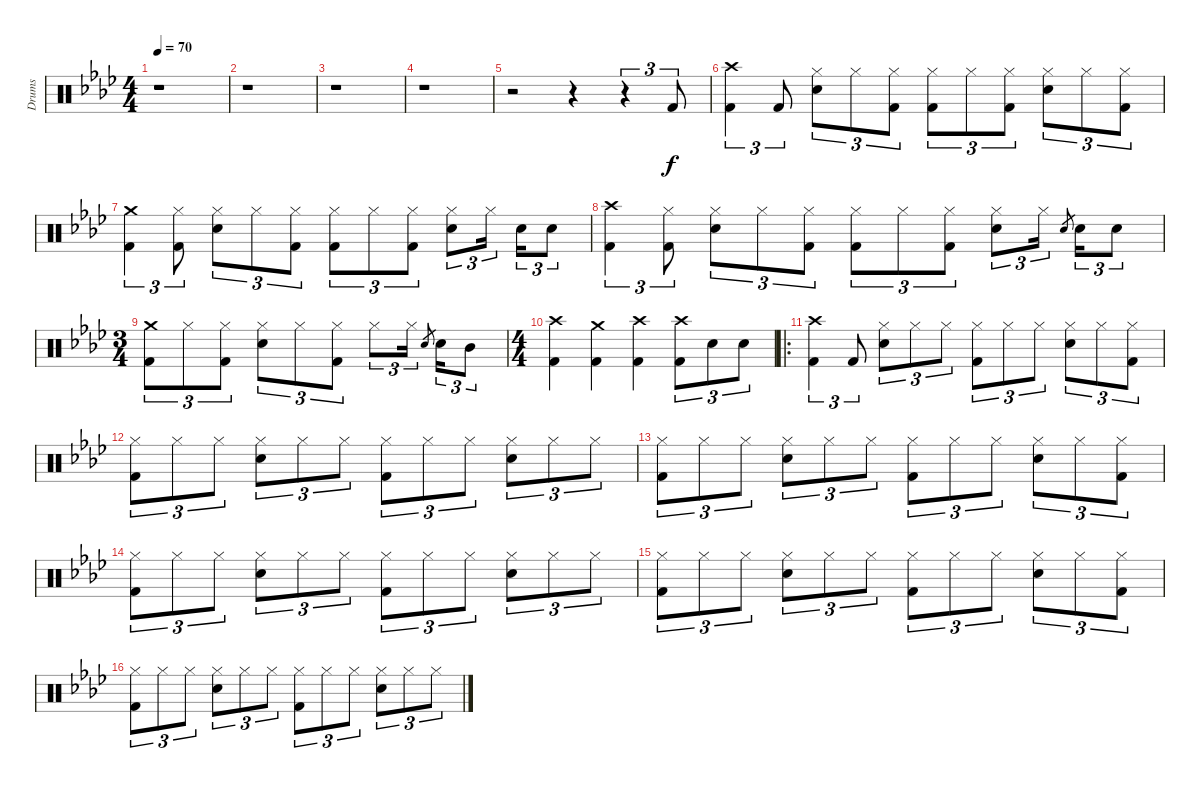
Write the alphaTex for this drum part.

\track ("Drums" "Drums") {instrument percussion}
\staff {score}
\articulation defaults
\ts (4 4)
\tempo 70
\clef neutral
\ks fminor
r.1{dy f} |
r.1 |
r.1 |
r.1 |
r.2 r.4 r.4{tu (3 2)} "Kick (hit) 2".8{tu (3 2)} |
("Kick (hit) 2" "Crash high (hit)").4{tu (3 2)} "Kick (hit) 2".8{tu (3 2)} ("Snare (hit) 2" "Hi-Hat (closed)").8{tu (3 2)} "Hi-Hat (closed)".8{tu (3 2)} ("Kick (hit) 2" "Hi-Hat (closed)").8{tu (3 2)} ("Kick (hit) 2" "Hi-Hat (closed)").8{tu (3 2)} "Hi-Hat (closed)".8{tu (3 2)} ("Kick (hit) 2" "Hi-Hat (closed)").8{tu (3 2)} ("Snare (hit) 2" "Hi-Hat (closed)").8{tu (3 2)} "Hi-Hat (closed)".8{tu (3 2)} ("Kick (hit) 2" "Hi-Hat (closed)").8{tu (3 2)} |
("Kick (hit) 2" "Crash medium (hit)").4{tu (3 2)} ("Kick (hit) 2" "Hi-Hat (closed)").8{tu (3 2)} ("Snare (hit) 2" "Hi-Hat (closed)").8{tu (3 2)} "Hi-Hat (closed)".8{tu (3 2)} ("Kick (hit) 2" "Hi-Hat (closed)").8{tu (3 2)} ("Kick (hit) 2" "Hi-Hat (closed)").8{tu (3 2)} "Hi-Hat (closed)".8{tu (3 2)} ("Kick (hit) 2" "Hi-Hat (closed)").8{tu (3 2)} ("Snare (hit) 2" "Hi-Hat (closed)").8{tu (3 2)} "Hi-Hat (closed)".16{tu (3 2)} "Snare (hit) 2".16{tu (3 2)} "Snare (hit) 2".8{tu (3 2)} |
("Kick (hit) 2" "Crash high (hit)").4{tu (3 2)} ("Kick (hit) 2" "Hi-Hat (closed)").8{tu (3 2)} ("Snare (hit) 2" "Hi-Hat (closed)").8{tu (3 2)} "Hi-Hat (closed)".8{tu (3 2)} ("Kick (hit) 2" "Hi-Hat (closed)").8{tu (3 2)} ("Kick (hit) 2" "Hi-Hat (closed)").8{tu (3 2)} "Hi-Hat (closed)".8{tu (3 2)} ("Kick (hit) 2" "Hi-Hat (closed)").8{tu (3 2)} ("Snare (hit) 2" "Hi-Hat (closed)").8{tu (3 2)} "Hi-Hat (closed)".16{tu (3 2)} "Snare (hit) 2".8{gr} "Snare (hit) 2".16{tu (3 2)} "Snare (hit) 2".8{tu (3 2)} |
\ts (3 4)
("Kick (hit) 2" "Crash medium (hit)").8{tu (3 2)} "Hi-Hat (closed)".8{tu (3 2)} ("Kick (hit) 2" "Hi-Hat (closed)").8{tu (3 2)} ("Snare (hit) 2" "Hi-Hat (closed)").8{tu (3 2)} "Hi-Hat (closed)".8{tu (3 2)} ("Kick (hit) 2" "Hi-Hat (closed)").8{tu (3 2)} "Hi-Hat (closed)".8{tu (3 2)} "Hi-Hat (closed)".16{tu (3 2)} "Snare (hit) 2".8{gr} "Snare (hit) 2".16{tu (3 2)} "Mid Tom (hit)".8{tu (3 2)} |
\ts (4 4)
("Kick (hit) 2" "Crash high (hit)").4 ("Kick (hit) 2" "Crash medium (hit)").4 ("Kick (hit) 2" "Crash high (hit)").4 ("Kick (hit) 2" "Crash high (hit)").8{tu (3 2)} "Snare (hit) 2".8{tu (3 2)} "Snare (hit) 2".8{tu (3 2)} |
\ro
("Kick (hit) 2" "Crash high (hit)").4{tu (3 2)} "Kick (hit) 2".8{tu (3 2)} ("Snare (hit) 2" "Hi-Hat (closed)").8{tu (3 2)} "Hi-Hat (closed)".8{tu (3 2)} "Hi-Hat (closed)".8{tu (3 2)} ("Kick (hit) 2" "Hi-Hat (closed)").8{tu (3 2)} "Hi-Hat (closed)".8{tu (3 2)} "Hi-Hat (closed)".8{tu (3 2)} ("Snare (hit) 2" "Hi-Hat (closed)").8{tu (3 2)} "Hi-Hat (closed)".8{tu (3 2)} ("Kick (hit) 2" "Hi-Hat (closed)").8{tu (3 2)} |
("Kick (hit) 2" "Hi-Hat (closed)").8{tu (3 2)} "Hi-Hat (closed)".8{tu (3 2)} "Hi-Hat (closed)".8{tu (3 2)} ("Snare (hit) 2" "Hi-Hat (closed)").8{tu (3 2)} "Hi-Hat (closed)".8{tu (3 2)} "Hi-Hat (closed)".8{tu (3 2)} ("Kick (hit) 2" "Hi-Hat (closed)").8{tu (3 2)} "Hi-Hat (closed)".8{tu (3 2)} "Hi-Hat (closed)".8{tu (3 2)} ("Snare (hit) 2" "Hi-Hat (closed)").8{tu (3 2)} "Hi-Hat (closed)".8{tu (3 2)} "Hi-Hat (closed)".8{tu (3 2)} |
("Kick (hit) 2" "Hi-Hat (closed)").8{tu (3 2)} "Hi-Hat (closed)".8{tu (3 2)} "Hi-Hat (closed)".8{tu (3 2)} ("Snare (hit) 2" "Hi-Hat (closed)").8{tu (3 2)} "Hi-Hat (closed)".8{tu (3 2)} "Hi-Hat (closed)".8{tu (3 2)} ("Kick (hit) 2" "Hi-Hat (closed)").8{tu (3 2)} "Hi-Hat (closed)".8{tu (3 2)} "Hi-Hat (closed)".8{tu (3 2)} ("Snare (hit) 2" "Hi-Hat (closed)").8{tu (3 2)} "Hi-Hat (closed)".8{tu (3 2)} ("Kick (hit) 2" "Hi-Hat (closed)").8{tu (3 2)} |
("Kick (hit) 2" "Hi-Hat (closed)").8{tu (3 2)} "Hi-Hat (closed)".8{tu (3 2)} "Hi-Hat (closed)".8{tu (3 2)} ("Snare (hit) 2" "Hi-Hat (closed)").8{tu (3 2)} "Hi-Hat (closed)".8{tu (3 2)} "Hi-Hat (closed)".8{tu (3 2)} ("Kick (hit) 2" "Hi-Hat (closed)").8{tu (3 2)} "Hi-Hat (closed)".8{tu (3 2)} "Hi-Hat (closed)".8{tu (3 2)} ("Snare (hit) 2" "Hi-Hat (closed)").8{tu (3 2)} "Hi-Hat (closed)".8{tu (3 2)} "Hi-Hat (closed)".8{tu (3 2)} |
("Kick (hit) 2" "Hi-Hat (closed)").8{tu (3 2)} "Hi-Hat (closed)".8{tu (3 2)} "Hi-Hat (closed)".8{tu (3 2)} ("Snare (hit) 2" "Hi-Hat (closed)").8{tu (3 2)} "Hi-Hat (closed)".8{tu (3 2)} "Hi-Hat (closed)".8{tu (3 2)} ("Kick (hit) 2" "Hi-Hat (closed)").8{tu (3 2)} "Hi-Hat (closed)".8{tu (3 2)} "Hi-Hat (closed)".8{tu (3 2)} ("Snare (hit) 2" "Hi-Hat (closed)").8{tu (3 2)} "Hi-Hat (closed)".8{tu (3 2)} ("Kick (hit) 2" "Hi-Hat (closed)").8{tu (3 2)} |
("Kick (hit) 2" "Hi-Hat (closed)").8{tu (3 2)} "Hi-Hat (closed)".8{tu (3 2)} "Hi-Hat (closed)".8{tu (3 2)} ("Snare (hit) 2" "Hi-Hat (closed)").8{tu (3 2)} "Hi-Hat (closed)".8{tu (3 2)} "Hi-Hat (closed)".8{tu (3 2)} ("Kick (hit) 2" "Hi-Hat (closed)").8{tu (3 2)} "Hi-Hat (closed)".8{tu (3 2)} "Hi-Hat (closed)".8{tu (3 2)} ("Snare (hit) 2" "Hi-Hat (closed)").8{tu (3 2)} "Hi-Hat (closed)".8{tu (3 2)} "Hi-Hat (closed)".8{tu (3 2)}
